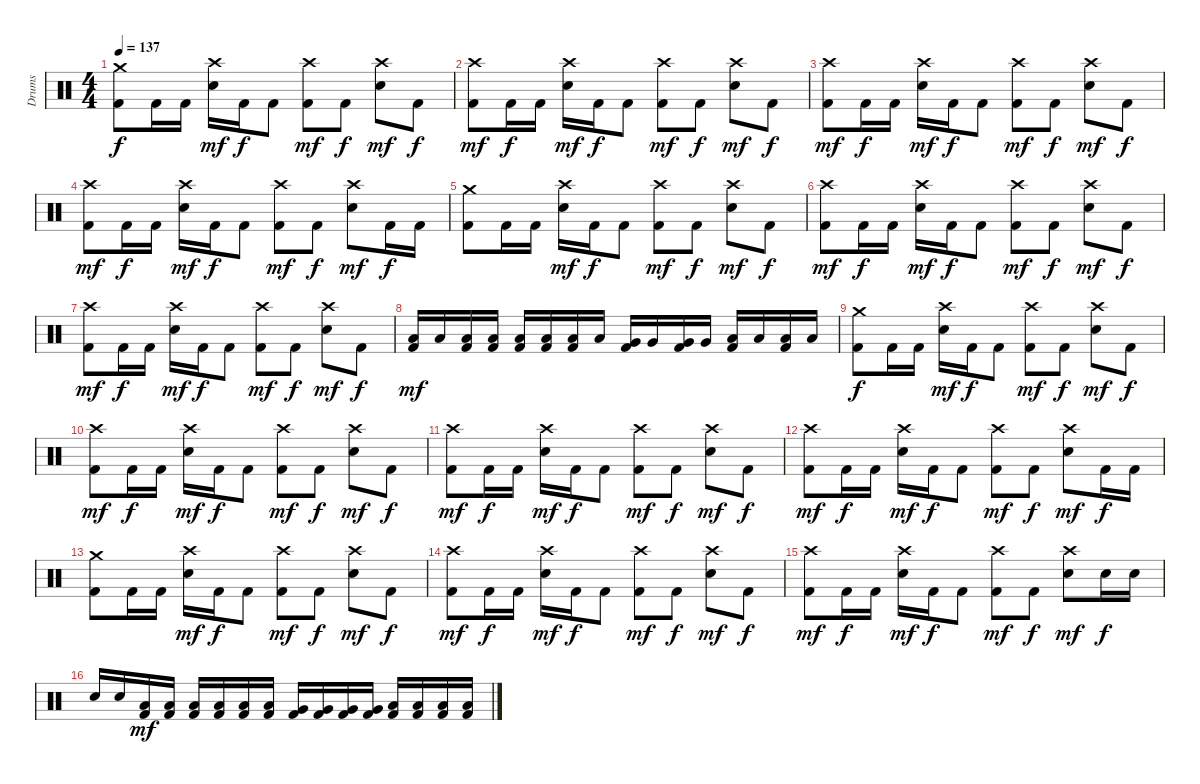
\track ("Drums" "Drums") {instrument percussion}
\staff {score}
\articulation defaults
\ts (4 4)
\tempo 137
\clef neutral
\ks c
("Crash medium (hit)" "Kick (hit) 2").8{dy f} "Kick (hit) 2".16 "Kick (hit) 2".16 ("Crash high (hit)" "Snare (hit) 2").16{dy mf} "Kick (hit) 2".16{dy f} "Kick (hit) 2".8 ("Crash high (hit)" "Kick (hit) 2").8{dy mf} "Kick (hit) 2".8{dy f} ("Crash high (hit)" "Snare (hit) 2").8{dy mf} "Kick (hit) 2".8{dy f} |
("Crash high (hit)" "Kick (hit) 2").8{dy mf} "Kick (hit) 2".16{dy f} "Kick (hit) 2".16 ("Crash high (hit)" "Snare (hit) 2").16{dy mf} "Kick (hit) 2".16{dy f} "Kick (hit) 2".8 ("Crash high (hit)" "Kick (hit) 2").8{dy mf} "Kick (hit) 2".8{dy f} ("Crash high (hit)" "Snare (hit) 2").8{dy mf} "Kick (hit) 2".8{dy f} |
("Crash high (hit)" "Kick (hit) 2").8{dy mf} "Kick (hit) 2".16{dy f} "Kick (hit) 2".16 ("Crash high (hit)" "Snare (hit) 2").16{dy mf} "Kick (hit) 2".16{dy f} "Kick (hit) 2".8 ("Crash high (hit)" "Kick (hit) 2").8{dy mf} "Kick (hit) 2".8{dy f} ("Crash high (hit)" "Snare (hit) 2").8{dy mf} "Kick (hit) 2".8{dy f} |
("Crash high (hit)" "Kick (hit) 2").8{dy mf} "Kick (hit) 2".16{dy f} "Kick (hit) 2".16 ("Crash high (hit)" "Snare (hit) 2").16{dy mf} "Kick (hit) 2".16{dy f} "Kick (hit) 2".8 ("Crash high (hit)" "Kick (hit) 2").8{dy mf} "Kick (hit) 2".8{dy f} ("Crash high (hit)" "Snare (hit) 2").8{dy mf} "Kick (hit) 2".16{dy f} "Kick (hit) 2".16 |
("Crash medium (hit)" "Kick (hit) 2").8 "Kick (hit) 2".16 "Kick (hit) 2".16 ("Crash high (hit)" "Snare (hit) 2").16{dy mf} "Kick (hit) 2".16{dy f} "Kick (hit) 2".8 ("Crash high (hit)" "Kick (hit) 2").8{dy mf} "Kick (hit) 2".8{dy f} ("Crash high (hit)" "Snare (hit) 2").8{dy mf} "Kick (hit) 2".8{dy f} |
("Crash high (hit)" "Kick (hit) 2").8{dy mf} "Kick (hit) 2".16{dy f} "Kick (hit) 2".16 ("Crash high (hit)" "Snare (hit) 2").16{dy mf} "Kick (hit) 2".16{dy f} "Kick (hit) 2".8 ("Crash high (hit)" "Kick (hit) 2").8{dy mf} "Kick (hit) 2".8{dy f} ("Crash high (hit)" "Snare (hit) 2").8{dy mf} "Kick (hit) 2".8{dy f} |
("Crash high (hit)" "Kick (hit) 2").8{dy mf} "Kick (hit) 2".16{dy f} "Kick (hit) 2".16 ("Crash high (hit)" "Snare (hit) 2").16{dy mf} "Kick (hit) 2".16{dy f} "Kick (hit) 2".8 ("Crash high (hit)" "Kick (hit) 2").8{dy mf} "Kick (hit) 2".8{dy f} ("Crash high (hit)" "Snare (hit) 2").8{dy mf} "Kick (hit) 2".8{dy f} |
("Low Tom (hit)" "Kick (hit) 2").16{dy mf} "Low Tom (hit)".16 ("Low Tom (hit)" "Kick (hit) 2").16 ("Low Tom (hit)" "Kick (hit) 2").16 ("Low Tom (hit)" "Kick (hit) 2").16 ("Low Tom (hit)" "Kick (hit) 2").16 ("Low Tom (hit)" "Kick (hit) 2").16 "Low Tom (hit)".16 ("Very Low Tom (hit)" "Kick (hit) 2").16 "Very Low Tom (hit)".16 ("Very Low Tom (hit)" "Kick (hit) 2").16 "Very Low Tom (hit)".16 ("Low Floor Tom (hit)" "Kick (hit) 2").16 "Low Floor Tom (hit)".16 ("Low Floor Tom (hit)" "Kick (hit) 2").16 "Low Floor Tom (hit)".16 |
("Crash medium (hit)" "Kick (hit) 2").8{dy f} "Kick (hit) 2".16 "Kick (hit) 2".16 ("Crash high (hit)" "Snare (hit) 2").16{dy mf} "Kick (hit) 2".16{dy f} "Kick (hit) 2".8 ("Crash high (hit)" "Kick (hit) 2").8{dy mf} "Kick (hit) 2".8{dy f} ("Crash high (hit)" "Snare (hit) 2").8{dy mf} "Kick (hit) 2".8{dy f} |
("Crash high (hit)" "Kick (hit) 2").8{dy mf} "Kick (hit) 2".16{dy f} "Kick (hit) 2".16 ("Crash high (hit)" "Snare (hit) 2").16{dy mf} "Kick (hit) 2".16{dy f} "Kick (hit) 2".8 ("Crash high (hit)" "Kick (hit) 2").8{dy mf} "Kick (hit) 2".8{dy f} ("Crash high (hit)" "Snare (hit) 2").8{dy mf} "Kick (hit) 2".8{dy f} |
("Crash high (hit)" "Kick (hit) 2").8{dy mf} "Kick (hit) 2".16{dy f} "Kick (hit) 2".16 ("Crash high (hit)" "Snare (hit) 2").16{dy mf} "Kick (hit) 2".16{dy f} "Kick (hit) 2".8 ("Crash high (hit)" "Kick (hit) 2").8{dy mf} "Kick (hit) 2".8{dy f} ("Crash high (hit)" "Snare (hit) 2").8{dy mf} "Kick (hit) 2".8{dy f} |
("Crash high (hit)" "Kick (hit) 2").8{dy mf} "Kick (hit) 2".16{dy f} "Kick (hit) 2".16 ("Crash high (hit)" "Snare (hit) 2").16{dy mf} "Kick (hit) 2".16{dy f} "Kick (hit) 2".8 ("Crash high (hit)" "Kick (hit) 2").8{dy mf} "Kick (hit) 2".8{dy f} ("Crash high (hit)" "Snare (hit) 2").8{dy mf} "Kick (hit) 2".16{dy f} "Kick (hit) 2".16 |
("Crash medium (hit)" "Kick (hit) 2").8 "Kick (hit) 2".16 "Kick (hit) 2".16 ("Crash high (hit)" "Snare (hit) 2").16{dy mf} "Kick (hit) 2".16{dy f} "Kick (hit) 2".8 ("Crash high (hit)" "Kick (hit) 2").8{dy mf} "Kick (hit) 2".8{dy f} ("Crash high (hit)" "Snare (hit) 2").8{dy mf} "Kick (hit) 2".8{dy f} |
("Crash high (hit)" "Kick (hit) 2").8{dy mf} "Kick (hit) 2".16{dy f} "Kick (hit) 2".16 ("Crash high (hit)" "Snare (hit) 2").16{dy mf} "Kick (hit) 2".16{dy f} "Kick (hit) 2".8 ("Crash high (hit)" "Kick (hit) 2").8{dy mf} "Kick (hit) 2".8{dy f} ("Crash high (hit)" "Snare (hit) 2").8{dy mf} "Kick (hit) 2".8{dy f} |
("Crash high (hit)" "Kick (hit) 2").8{dy mf} "Kick (hit) 2".16{dy f} "Kick (hit) 2".16 ("Crash high (hit)" "Snare (hit) 2").16{dy mf} "Kick (hit) 2".16{dy f} "Kick (hit) 2".8 ("Crash high (hit)" "Kick (hit) 2").8{dy mf} "Kick (hit) 2".8{dy f} ("Crash high (hit)" "Snare (hit) 2").8{dy mf} "Snare (hit) 2".16{dy f} "Snare (hit) 2".16 |
"Snare (hit) 2".16 "Snare (hit) 2".16 ("Low Tom (hit)" "Kick (hit) 2").16{dy mf} ("Low Tom (hit)" "Kick (hit) 2").16 ("Low Tom (hit)" "Kick (hit) 2").16 ("Low Tom (hit)" "Kick (hit) 2").16 ("Low Tom (hit)" "Kick (hit) 2").16 ("Low Tom (hit)" "Kick (hit) 2").16 ("Very Low Tom (hit)" "Kick (hit) 2").16 ("Very Low Tom (hit)" "Kick (hit) 2").16 ("Very Low Tom (hit)" "Kick (hit) 2").16 ("Very Low Tom (hit)" "Kick (hit) 2").16 ("Low Floor Tom (hit)" "Kick (hit) 2").16 ("Low Floor Tom (hit)" "Kick (hit) 2").16 ("Low Floor Tom (hit)" "Kick (hit) 2").16 ("Low Floor Tom (hit)" "Kick (hit) 2").16
